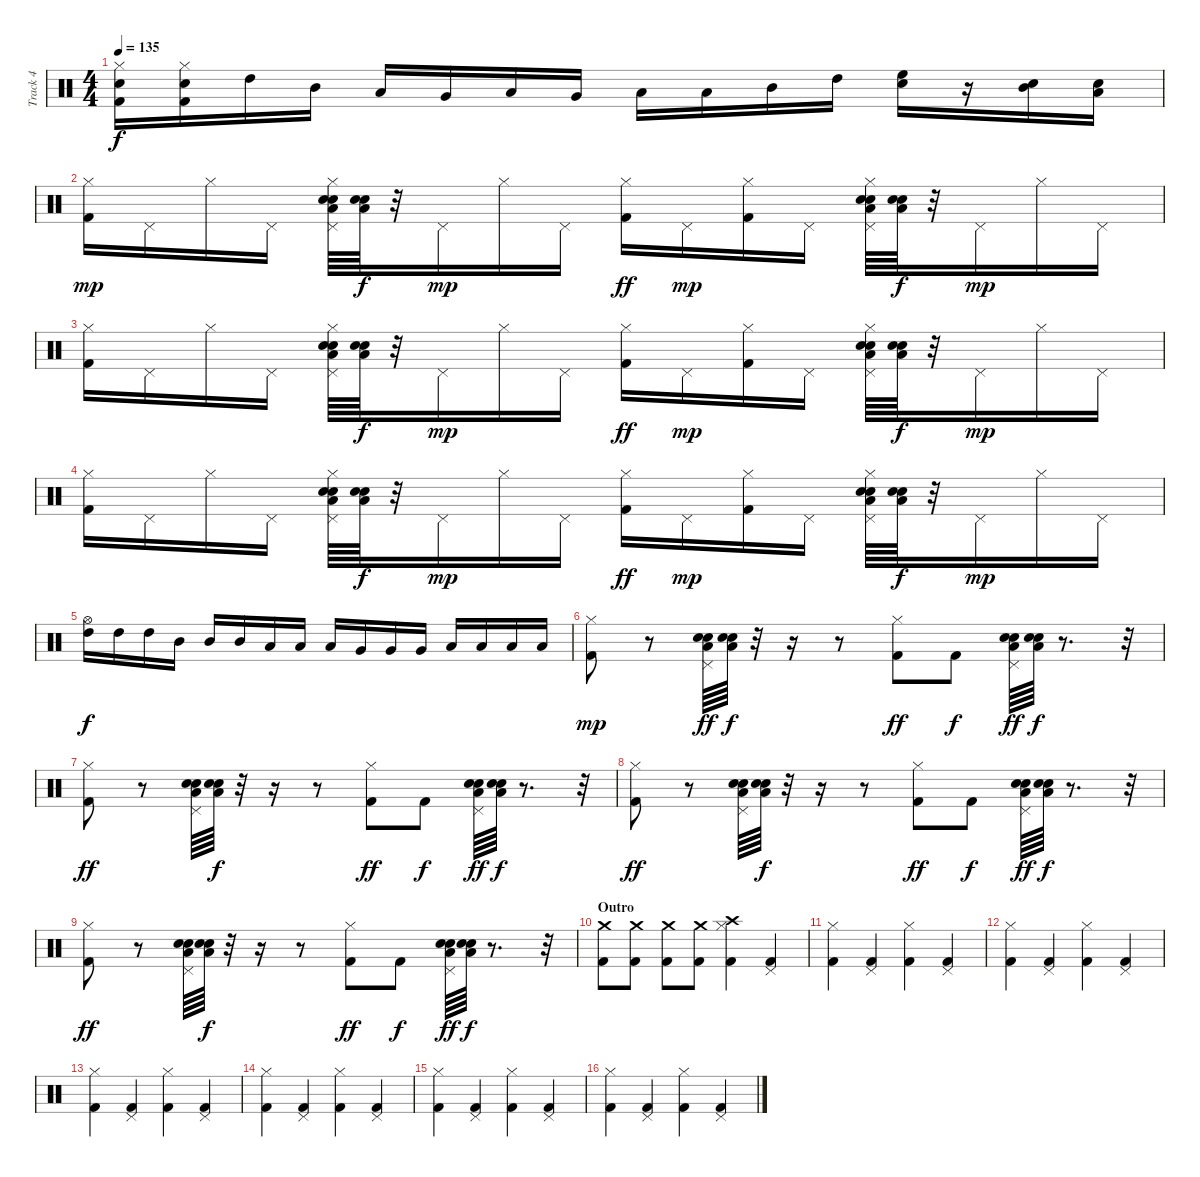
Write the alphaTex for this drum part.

\track ("Track 4" "Track 4") {instrument percussion}
\staff {score}
\articulation defaults
\ts (4 4)
\tempo 135
\clef neutral
\ks c
("Hi-Hat (closed)" "Kick (hit) 2" "Electric Snare (hit)").16{dy f} ("Hi-Hat (closed)" "Kick (hit) 2" "Electric Snare (hit)").16 "High Tom (hit)".16 "Mid Tom (hit)".16 "Low Tom (hit)".16 "Very Low Tom (hit)".16 "Low Floor Tom (hit)".16 "Very Low Tom (hit)".16 "Low Tom (hit)".16 "Low Tom (hit)".16 "Mid Tom (hit)".16 "High Tom (hit)".16 ("Electric Snare (hit)" "High Floor Tom (hit)").16 r.16 ("Electric Snare (hit)" "Mid Tom (hit)").16 ("Electric Snare (hit)" "Low Tom (hit)").16 |
("Kick (hit) 2" "Hi-Hat (closed)").16{dy mp} "Pedal Hi-Hat (hit)".16 "Hi-Hat (closed)".16 "Pedal Hi-Hat (hit)".16 ("Electric Snare (hit)" "Low Tom (hit)" "Snare (hit) 2" "Pedal Hi-Hat (hit)" "Hi-Hat (closed)").64 ("Electric Snare (hit)" "Low Tom (hit)" "Snare (hit) 2").64{dy f} r.32 "Pedal Hi-Hat (hit)".16{dy mp} "Hi-Hat (closed)".16 "Pedal Hi-Hat (hit)".16 ("Kick (hit) 2" "Hi-Hat (closed)").16{dy ff} "Pedal Hi-Hat (hit)".16{dy mp} ("Kick (hit) 2" "Hi-Hat (closed)").16 "Pedal Hi-Hat (hit)".16 ("Electric Snare (hit)" "Low Tom (hit)" "Snare (hit) 2" "Pedal Hi-Hat (hit)" "Hi-Hat (closed)").64 ("Electric Snare (hit)" "Low Tom (hit)" "Snare (hit) 2").64{dy f} r.32 "Pedal Hi-Hat (hit)".16{dy mp} "Hi-Hat (closed)".16 "Pedal Hi-Hat (hit)".16 |
("Kick (hit) 2" "Hi-Hat (closed)").16 "Pedal Hi-Hat (hit)".16 "Hi-Hat (closed)".16 "Pedal Hi-Hat (hit)".16 ("Electric Snare (hit)" "Low Tom (hit)" "Snare (hit) 2" "Pedal Hi-Hat (hit)" "Hi-Hat (closed)").64 ("Electric Snare (hit)" "Low Tom (hit)" "Snare (hit) 2").64{dy f} r.32 "Pedal Hi-Hat (hit)".16{dy mp} "Hi-Hat (closed)".16 "Pedal Hi-Hat (hit)".16 ("Kick (hit) 2" "Hi-Hat (closed)").16{dy ff} "Pedal Hi-Hat (hit)".16{dy mp} ("Kick (hit) 2" "Hi-Hat (closed)").16 "Pedal Hi-Hat (hit)".16 ("Electric Snare (hit)" "Low Tom (hit)" "Snare (hit) 2" "Pedal Hi-Hat (hit)" "Hi-Hat (closed)").64 ("Electric Snare (hit)" "Low Tom (hit)" "Snare (hit) 2").64{dy f} r.32 "Pedal Hi-Hat (hit)".16{dy mp} "Hi-Hat (closed)".16 "Pedal Hi-Hat (hit)".16 |
("Kick (hit) 2" "Hi-Hat (closed)").16 "Pedal Hi-Hat (hit)".16 "Hi-Hat (closed)".16 "Pedal Hi-Hat (hit)".16 ("Electric Snare (hit)" "Low Tom (hit)" "Snare (hit) 2" "Pedal Hi-Hat (hit)" "Hi-Hat (closed)").64 ("Electric Snare (hit)" "Low Tom (hit)" "Snare (hit) 2").64{dy f} r.32 "Pedal Hi-Hat (hit)".16{dy mp} "Hi-Hat (closed)".16 "Pedal Hi-Hat (hit)".16 ("Kick (hit) 2" "Hi-Hat (closed)").16{dy ff} "Pedal Hi-Hat (hit)".16{dy mp} ("Kick (hit) 2" "Hi-Hat (closed)").16 "Pedal Hi-Hat (hit)".16 ("Electric Snare (hit)" "Low Tom (hit)" "Snare (hit) 2" "Pedal Hi-Hat (hit)" "Hi-Hat (closed)").64 ("Electric Snare (hit)" "Low Tom (hit)" "Snare (hit) 2").64{dy f} r.32 "Pedal Hi-Hat (hit)".16{dy mp} "Hi-Hat (closed)".16 "Pedal Hi-Hat (hit)".16 |
("High Tom (hit)" "Hi-Hat (open)").16{dy f} "High Tom (hit)".16 "High Tom (hit)".16 "Mid Tom (hit)".16 "Mid Tom (hit)".16 "Mid Tom (hit)".16 "Low Tom (hit)".16 "Low Tom (hit)".16 "Low Tom (hit)".16 "Very Low Tom (hit)".16 "Very Low Tom (hit)".16 "Very Low Tom (hit)".16 "Low Floor Tom (hit)".16 "Low Floor Tom (hit)".16 "Low Floor Tom (hit)".16 "Low Floor Tom (hit)".16 |
("Kick (hit) 2" "Hi-Hat (closed)").8{dy mp} r.8 ("Electric Snare (hit)" "Low Tom (hit)" "Snare (hit) 2" "Pedal Hi-Hat (hit)").64{dy ff} ("Electric Snare (hit)" "Low Tom (hit)" "Snare (hit) 2").64{dy f} r.32 r.16 r.8 ("Kick (hit) 2" "Hi-Hat (closed)").8{dy ff} "Kick (hit) 2".8{dy f} ("Electric Snare (hit)" "Low Tom (hit)" "Snare (hit) 2" "Pedal Hi-Hat (hit)").64{dy ff} ("Electric Snare (hit)" "Low Tom (hit)" "Snare (hit) 2").64{dy f} r.8{d} r.32 |
("Kick (hit) 2" "Hi-Hat (closed)").8{dy ff} r.8 ("Electric Snare (hit)" "Low Tom (hit)" "Snare (hit) 2" "Pedal Hi-Hat (hit)").64 ("Electric Snare (hit)" "Low Tom (hit)" "Snare (hit) 2").64{dy f} r.32 r.16 r.8 ("Kick (hit) 2" "Hi-Hat (closed)").8{dy ff} "Kick (hit) 2".8{dy f} ("Electric Snare (hit)" "Low Tom (hit)" "Snare (hit) 2" "Pedal Hi-Hat (hit)").64{dy ff} ("Electric Snare (hit)" "Low Tom (hit)" "Snare (hit) 2").64{dy f} r.8{d} r.32 |
("Kick (hit) 2" "Hi-Hat (closed)").8{dy ff} r.8 ("Electric Snare (hit)" "Low Tom (hit)" "Snare (hit) 2" "Pedal Hi-Hat (hit)").64 ("Electric Snare (hit)" "Low Tom (hit)" "Snare (hit) 2").64{dy f} r.32 r.16 r.8 ("Kick (hit) 2" "Hi-Hat (closed)").8{dy ff} "Kick (hit) 2".8{dy f} ("Electric Snare (hit)" "Low Tom (hit)" "Snare (hit) 2" "Pedal Hi-Hat (hit)").64{dy ff} ("Electric Snare (hit)" "Low Tom (hit)" "Snare (hit) 2").64{dy f} r.8{d} r.32 |
("Kick (hit) 2" "Hi-Hat (closed)").8{dy ff} r.8 ("Electric Snare (hit)" "Low Tom (hit)" "Snare (hit) 2" "Pedal Hi-Hat (hit)").64 ("Electric Snare (hit)" "Low Tom (hit)" "Snare (hit) 2").64{dy f} r.32 r.16 r.8 ("Kick (hit) 2" "Hi-Hat (closed)").8{dy ff} "Kick (hit) 2".8{dy f} ("Electric Snare (hit)" "Low Tom (hit)" "Snare (hit) 2" "Pedal Hi-Hat (hit)").64{dy ff} ("Electric Snare (hit)" "Low Tom (hit)" "Snare (hit) 2").64{dy f} r.8{d} r.32 |
\section ("" "Outro")
("Kick (hit) 2" "Crash medium (hit)").8 ("Kick (hit) 2" "Crash medium (hit)").8 ("Kick (hit) 2" "Crash medium (hit)").8 ("Kick (hit) 2" "Crash medium (hit)").8 ("Hi-Hat (closed)" "Kick (hit) 2" "Crash high (hit)").4 ("Pedal Hi-Hat (hit)" "Kick (hit) 2").4 |
("Hi-Hat (closed)" "Kick (hit) 2").4 ("Pedal Hi-Hat (hit)" "Kick (hit) 2").4 ("Hi-Hat (closed)" "Kick (hit) 2").4 ("Pedal Hi-Hat (hit)" "Kick (hit) 2").4 |
("Hi-Hat (closed)" "Kick (hit) 2").4 ("Pedal Hi-Hat (hit)" "Kick (hit) 2").4 ("Hi-Hat (closed)" "Kick (hit) 2").4 ("Pedal Hi-Hat (hit)" "Kick (hit) 2").4 |
("Hi-Hat (closed)" "Kick (hit) 2").4 ("Pedal Hi-Hat (hit)" "Kick (hit) 2").4 ("Hi-Hat (closed)" "Kick (hit) 2").4 ("Pedal Hi-Hat (hit)" "Kick (hit) 2").4 |
("Hi-Hat (closed)" "Kick (hit) 2").4 ("Pedal Hi-Hat (hit)" "Kick (hit) 2").4 ("Hi-Hat (closed)" "Kick (hit) 2").4 ("Pedal Hi-Hat (hit)" "Kick (hit) 2").4 |
("Hi-Hat (closed)" "Kick (hit) 2").4 ("Pedal Hi-Hat (hit)" "Kick (hit) 2").4 ("Hi-Hat (closed)" "Kick (hit) 2").4 ("Pedal Hi-Hat (hit)" "Kick (hit) 2").4 |
("Hi-Hat (closed)" "Kick (hit) 2").4 ("Pedal Hi-Hat (hit)" "Kick (hit) 2").4 ("Hi-Hat (closed)" "Kick (hit) 2").4 ("Pedal Hi-Hat (hit)" "Kick (hit) 2").4
